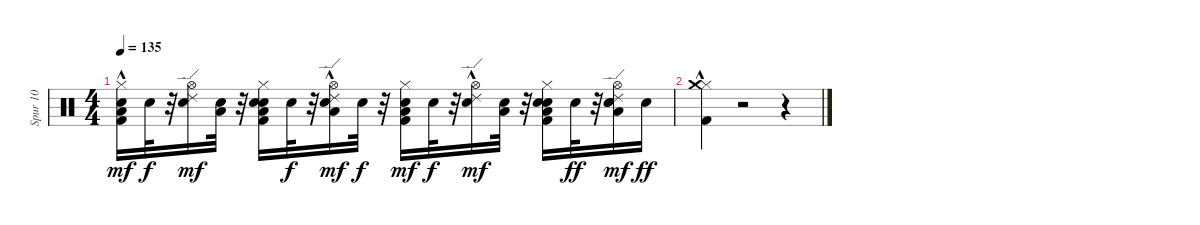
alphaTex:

\track ("Spur 10" "Spur 10") {instrument percussion}
\staff {score}
\articulation defaults
\ts (4 4)
\tempo 135
\clef neutral
\ks c
("Snare (hit) 2" "Kick (hit) 2" "Low Tom (hit)" "Hi-Hat (closed)"{hac}).16{dy mf} "Snare (hit) 2".32{dy f} r.32 ("Snare (hit) 2" "Ride (edge) 2" "Hi-Hat (open)").16{dy mf} ("Snare (hit) 2" "Low Tom (hit)").32 r.32 ("Snare (hit) 2" "Kick (hit) 2" "Hand Clap (hit)" "Low Tom (hit)" "Hi-Hat (closed)").16 "Snare (hit) 2".32{dy f} r.32 ("Snare (hit) 2" "Low Tom (hit)" "Hi-Hat (open)" "Ride (edge) 2"{hac}).16{dy mf} "Snare (hit) 2".32{dy f} r.32 ("Snare (hit) 2" "Kick (hit) 2" "Low Tom (hit)" "Hi-Hat (closed)").16{dy mf} "Snare (hit) 2".32{dy f} r.32 ("Snare (hit) 2" "Hi-Hat (open)" "Ride (edge) 2"{hac}).16{dy mf} ("Snare (hit) 2" "Low Tom (hit)").32 r.32 ("Snare (hit) 2" "Kick (hit) 2" "Hand Clap (hit)" "Low Tom (hit)" "Hi-Hat (closed)").16 "Snare (hit) 2".32{dy ff} r.32 ("Snare (hit) 2" "Hand Clap (hit)" "Low Tom (hit)" "Hi-Hat (open)" "Ride (edge) 2").16{dy mf} "Snare (hit) 2".16{dy ff} |
("Kick (hit) 2" "Hi-Hat (closed)"{hac} "Crash medium (hit)").4 r.2 r.4
